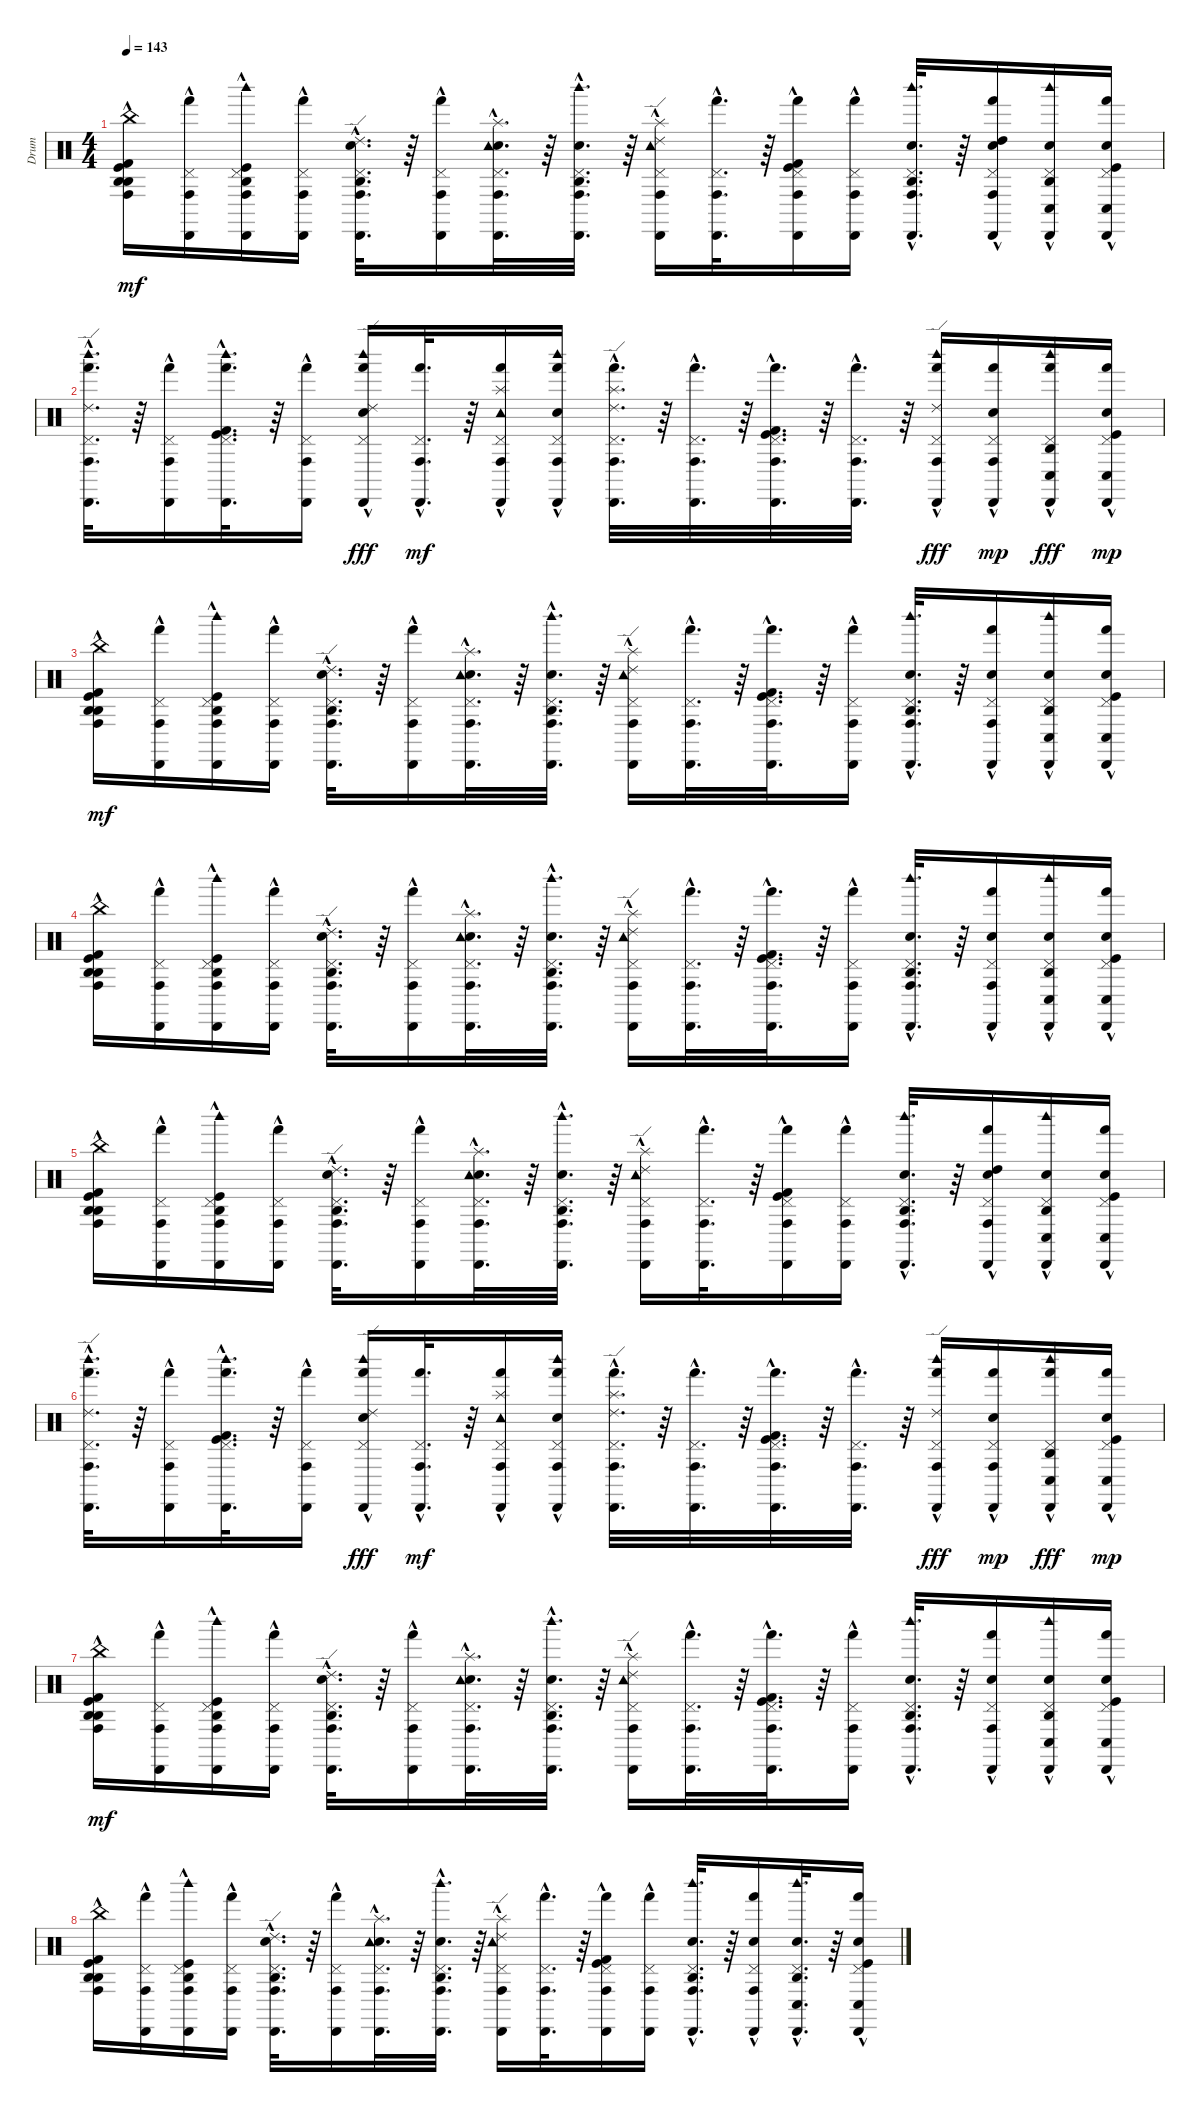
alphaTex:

\track ("Drum" "Drum") {instrument percussion}
\staff {score}
\articulation defaults
\ts (4 4)
\tempo 143
\clef neutral
\ks c
("China (hit)" "Kick (hit)"{hac} "Kick (hit) 2" "Agogo high (hit)"{hac} "Agogo high (hit)"{hac} "Conga high (hit)"{hac}).16{dy mf} ("Conga high (hit)"{hac} "Cabasa (hit)"{hac} "Pedal Hi-Hat (hit)"{hac} "Hand (hit)"{hac}).16 ("Agogo high (hit)"{hac} "Conga high (hit)"{hac} "Cabasa (hit)"{hac} "Kick (hit)"{hac} "Pedal Hi-Hat (hit)"{hac} "Woodblock high (hit)").16 ("Conga high (hit)"{hac} "Cabasa (hit)"{hac} "Pedal Hi-Hat (hit)"{hac} "Hand (hit)"{hac}).16 ("Agogo high (hit)"{hac} "Conga high (hit)"{hac} "Cabasa (hit)"{hac} "Snare (hit) 2"{hac} "Pedal Hi-Hat (hit)"{hac} "Ride (edge) 2"{hac}).32{d} r.64 ("Conga high (hit)"{hac} "Cabasa (hit)"{hac} "Pedal Hi-Hat (hit)"{hac} "Hand (hit)"{hac}).16 ("Snare (hit) 2"{hac} "Tambourine (hit)"{hac} "Splash (hit)"{hac} "Conga high (hit)"{hac} "Cabasa (hit)"{hac} "Pedal Hi-Hat (hit)"{hac}).32{d} r.64 ("Agogo high (hit)"{hac} "Conga high (hit)"{hac} "Cabasa (hit)"{hac} "Snare (hit) 2"{hac} "Pedal Hi-Hat (hit)"{hac} "Woodblock high (hit)"{hac}).32{d} r.64 ("Tambourine (hit)"{hac} "Splash (hit)"{hac} "Conga high (hit)"{hac} "Cabasa (hit)"{hac} "Pedal Hi-Hat (hit)"{hac} "Ride (edge) 2").16 ("Conga high (hit)"{hac} "Cabasa (hit)"{hac} "Pedal Hi-Hat (hit)"{hac} "Hand (hit)"{hac}).32{d} r.64 ("Conga high (hit)"{hac} "Cabasa (hit)"{hac} "Kick (hit)"{hac} "Pedal Hi-Hat (hit)"{hac} "Kick (hit) 2"{hac} "Hand (hit)"{hac}).16 ("Conga high (hit)"{hac} "Cabasa (hit)"{hac} "Pedal Hi-Hat (hit)"{hac} "Hand (hit)"{hac}).16 ("Snare (hit) 2"{hac} "Agogo high (hit)"{hac} "Woodblock high (hit)"{hac} "Conga high (hit)"{hac} "Cabasa (hit)"{hac} "Pedal Hi-Hat (hit)"{hac}).32{d} r.64 ("Snare (hit) 2"{hac} "Conga high (hit)"{hac} "Cabasa (hit)"{hac} "Pedal Hi-Hat (hit)"{hac} "Hand (hit)"{hac} "High Tom (hit)"{hac}).16 ("Snare (hit) 2"{hac} "Agogo high (hit)"{hac} "Woodblock high (hit)"{hac} "Conga low (hit)"{hac} "Cabasa (hit)"{hac} "Pedal Hi-Hat (hit)"{hac}).16 ("Kick (hit)"{hac} "Conga low (hit)"{hac} "Cabasa (hit)"{hac} "Snare (hit) 2"{hac} "Pedal Hi-Hat (hit)"{hac} "Hand (hit)"{hac}).16 |
("Hand (hit)"{hac} "Woodblock high (hit)"{hac} "Ride (edge) 2"{hac} "Pedal Hi-Hat (hit)"{hac} "Cabasa (hit)"{hac} "Conga high (hit)"{hac}).32{d} r.64 ("Hand (hit)"{hac} "Pedal Hi-Hat (hit)"{hac} "Cabasa (hit)"{hac} "Conga high (hit)"{hac}).16 ("Hand (hit)"{hac} "Kick (hit) 2"{hac} "Woodblock high (hit)"{hac} "Pedal Hi-Hat (hit)"{hac} "Kick (hit)"{hac} "Cabasa (hit)"{hac}).32{d} r.64 ("Hand (hit)"{hac} "Pedal Hi-Hat (hit)"{hac} "Cabasa (hit)"{hac} "Conga high (hit)"{hac}).16 ("Hand (hit)"{hac} "Woodblock high (hit)"{hac} "Ride (edge) 2"{hac} "Pedal Hi-Hat (hit)"{hac} "Snare (hit) 2" "Cabasa (hit)"{hac}).16{dy fff} ("Hand (hit)"{hac} "Pedal Hi-Hat (hit)"{hac} "Cabasa (hit)"{hac} "Conga high (hit)"{hac}).32{d dy mf} r.64 ("Hand (hit)"{hac} "Pedal Hi-Hat (hit)"{hac} "Cabasa (hit)"{hac} "Conga high (hit)"{hac} "Splash (hit)"{hac} "Tambourine (hit)").16 ("Hand (hit)"{hac} "Woodblock high (hit)"{hac} "Pedal Hi-Hat (hit)"{hac} "Snare (hit) 2" "Cabasa (hit)"{hac} "Conga high (hit)"{hac}).16 ("Hand (hit)"{hac} "Ride (edge) 2"{hac} "Pedal Hi-Hat (hit)"{hac} "Cabasa (hit)"{hac} "Conga high (hit)"{hac} "Splash (hit)"{hac}).32{d} r.64 ("Hand (hit)"{hac} "Pedal Hi-Hat (hit)"{hac} "Cabasa (hit)"{hac} "Conga high (hit)"{hac}).32{d} r.64 ("Hand (hit)"{hac} "Kick (hit) 2"{hac} "Pedal Hi-Hat (hit)"{hac} "Kick (hit)"{hac} "Cabasa (hit)"{hac} "Conga high (hit)"{hac}).32{d} r.64 ("Hand (hit)"{hac} "Pedal Hi-Hat (hit)"{hac} "Cabasa (hit)"{hac} "Conga high (hit)"{hac}).32{d} r.64 ("Hand (hit)"{hac} "Ride (edge) 2" "Pedal Hi-Hat (hit)"{hac} "Cabasa (hit)"{hac} "Conga high (hit)"{hac} "Woodblock high (hit)"{hac}).16{dy fff} ("Hand (hit)"{hac} "Pedal Hi-Hat (hit)"{hac} "Cabasa (hit)"{hac} "Conga high (hit)"{hac} "Snare (hit) 2"{hac}).16{dy mp} ("Hand (hit)"{hac} "Pedal Hi-Hat (hit)"{hac} "Cabasa (hit)"{hac} "Conga low (hit)"{hac} "Woodblock high (hit)" "Agogo high (hit)"{hac}).16{dy fff} ("Hand (hit)"{hac} "Pedal Hi-Hat (hit)"{hac} "Snare (hit) 2"{hac} "Cabasa (hit)"{hac} "Conga low (hit)"{hac} "Kick (hit)"{hac}).16{dy mp} |
("China (hit)"{hac} "Kick (hit)"{hac} "Kick (hit) 2" "Agogo high (hit)"{hac} "Agogo high (hit)"{hac} "Conga high (hit)"{hac}).16{dy mf} ("Conga high (hit)"{hac} "Cabasa (hit)"{hac} "Pedal Hi-Hat (hit)"{hac} "Hand (hit)"{hac}).16 ("Agogo high (hit)"{hac} "Conga high (hit)"{hac} "Cabasa (hit)"{hac} "Kick (hit)"{hac} "Pedal Hi-Hat (hit)"{hac} "Woodblock high (hit)").16 ("Conga high (hit)"{hac} "Cabasa (hit)"{hac} "Pedal Hi-Hat (hit)"{hac} "Hand (hit)"{hac}).16 ("Agogo high (hit)"{hac} "Conga high (hit)"{hac} "Cabasa (hit)"{hac} "Snare (hit) 2"{hac} "Pedal Hi-Hat (hit)"{hac} "Ride (edge) 2"{hac}).32{d} r.64 ("Conga high (hit)"{hac} "Cabasa (hit)"{hac} "Pedal Hi-Hat (hit)"{hac} "Hand (hit)"{hac}).16 ("Snare (hit) 2"{hac} "Tambourine (hit)"{hac} "Splash (hit)"{hac} "Conga high (hit)"{hac} "Cabasa (hit)"{hac} "Pedal Hi-Hat (hit)"{hac}).32{d} r.64 ("Agogo high (hit)"{hac} "Conga high (hit)"{hac} "Cabasa (hit)"{hac} "Snare (hit) 2"{hac} "Pedal Hi-Hat (hit)"{hac} "Woodblock high (hit)"{hac}).32{d} r.64 ("Tambourine (hit)"{hac} "Splash (hit)"{hac} "Conga high (hit)"{hac} "Cabasa (hit)"{hac} "Pedal Hi-Hat (hit)"{hac} "Ride (edge) 2").16 ("Conga high (hit)"{hac} "Cabasa (hit)"{hac} "Pedal Hi-Hat (hit)"{hac} "Hand (hit)"{hac}).32{d} r.64 ("Conga high (hit)"{hac} "Cabasa (hit)"{hac} "Kick (hit)"{hac} "Pedal Hi-Hat (hit)"{hac} "Kick (hit) 2"{hac} "Hand (hit)"{hac}).32{d} r.64 ("Conga high (hit)"{hac} "Cabasa (hit)"{hac} "Pedal Hi-Hat (hit)"{hac} "Hand (hit)"{hac}).16 ("Snare (hit) 2"{hac} "Agogo high (hit)"{hac} "Woodblock high (hit)"{hac} "Conga high (hit)"{hac} "Cabasa (hit)"{hac} "Pedal Hi-Hat (hit)"{hac}).32{d} r.64 ("Snare (hit) 2"{hac} "Conga high (hit)"{hac} "Cabasa (hit)"{hac} "Pedal Hi-Hat (hit)"{hac} "Hand (hit)"{hac}).16 ("Snare (hit) 2"{hac} "Agogo high (hit)"{hac} "Woodblock high (hit)" "Conga low (hit)"{hac} "Cabasa (hit)"{hac} "Pedal Hi-Hat (hit)"{hac}).16 ("Kick (hit)"{hac} "Conga low (hit)"{hac} "Cabasa (hit)"{hac} "Snare (hit) 2"{hac} "Pedal Hi-Hat (hit)"{hac} "Hand (hit)"{hac}).16 |
("China (hit)"{hac} "Kick (hit)"{hac} "Kick (hit) 2" "Agogo high (hit)"{hac} "Agogo high (hit)"{hac} "Conga high (hit)"{hac}).16 ("Conga high (hit)"{hac} "Cabasa (hit)"{hac} "Pedal Hi-Hat (hit)"{hac} "Hand (hit)"{hac}).16 ("Agogo high (hit)"{hac} "Conga high (hit)"{hac} "Cabasa (hit)"{hac} "Kick (hit)"{hac} "Pedal Hi-Hat (hit)"{hac} "Woodblock high (hit)").16 ("Conga high (hit)"{hac} "Cabasa (hit)"{hac} "Pedal Hi-Hat (hit)"{hac} "Hand (hit)"{hac}).16 ("Agogo high (hit)"{hac} "Conga high (hit)"{hac} "Cabasa (hit)"{hac} "Snare (hit) 2"{hac} "Pedal Hi-Hat (hit)"{hac} "Ride (edge) 2"{hac}).32{d} r.64 ("Conga high (hit)"{hac} "Cabasa (hit)"{hac} "Pedal Hi-Hat (hit)"{hac} "Hand (hit)"{hac}).16 ("Snare (hit) 2"{hac} "Tambourine (hit)"{hac} "Splash (hit)"{hac} "Conga high (hit)"{hac} "Cabasa (hit)"{hac} "Pedal Hi-Hat (hit)"{hac}).32{d} r.64 ("Agogo high (hit)"{hac} "Conga high (hit)"{hac} "Cabasa (hit)"{hac} "Snare (hit) 2"{hac} "Pedal Hi-Hat (hit)"{hac} "Woodblock high (hit)"{hac}).32{d} r.64 ("Tambourine (hit)"{hac} "Splash (hit)"{hac} "Conga high (hit)"{hac} "Cabasa (hit)"{hac} "Pedal Hi-Hat (hit)"{hac} "Ride (edge) 2").16 ("Conga high (hit)"{hac} "Cabasa (hit)"{hac} "Pedal Hi-Hat (hit)"{hac} "Hand (hit)"{hac}).32{d} r.64 ("Conga high (hit)"{hac} "Cabasa (hit)"{hac} "Kick (hit)"{hac} "Pedal Hi-Hat (hit)"{hac} "Kick (hit) 2"{hac} "Hand (hit)"{hac}).32{d} r.64 ("Conga high (hit)"{hac} "Cabasa (hit)"{hac} "Pedal Hi-Hat (hit)"{hac} "Hand (hit)"{hac}).16 ("Snare (hit) 2"{hac} "Agogo high (hit)"{hac} "Woodblock high (hit)"{hac} "Conga high (hit)"{hac} "Cabasa (hit)"{hac} "Pedal Hi-Hat (hit)"{hac}).32{d} r.64 ("Snare (hit) 2"{hac} "Conga high (hit)"{hac} "Cabasa (hit)"{hac} "Pedal Hi-Hat (hit)"{hac} "Hand (hit)"{hac}).16 ("Snare (hit) 2"{hac} "Agogo high (hit)"{hac} "Woodblock high (hit)" "Conga low (hit)"{hac} "Cabasa (hit)"{hac} "Pedal Hi-Hat (hit)"{hac}).16 ("Kick (hit)"{hac} "Conga low (hit)"{hac} "Cabasa (hit)"{hac} "Snare (hit) 2"{hac} "Pedal Hi-Hat (hit)"{hac} "Hand (hit)"{hac}).16 |
("China (hit)" "Kick (hit)"{hac} "Kick (hit) 2" "Agogo high (hit)"{hac} "Agogo high (hit)"{hac} "Conga high (hit)"{hac}).16 ("Conga high (hit)"{hac} "Cabasa (hit)"{hac} "Pedal Hi-Hat (hit)"{hac} "Hand (hit)"{hac}).16 ("Agogo high (hit)"{hac} "Conga high (hit)"{hac} "Cabasa (hit)"{hac} "Kick (hit)"{hac} "Pedal Hi-Hat (hit)"{hac} "Woodblock high (hit)").16 ("Conga high (hit)"{hac} "Cabasa (hit)"{hac} "Pedal Hi-Hat (hit)"{hac} "Hand (hit)"{hac}).16 ("Agogo high (hit)"{hac} "Conga high (hit)"{hac} "Cabasa (hit)"{hac} "Snare (hit) 2"{hac} "Pedal Hi-Hat (hit)"{hac} "Ride (edge) 2"{hac}).32{d} r.64 ("Conga high (hit)"{hac} "Cabasa (hit)"{hac} "Pedal Hi-Hat (hit)"{hac} "Hand (hit)"{hac}).16 ("Snare (hit) 2"{hac} "Tambourine (hit)"{hac} "Splash (hit)"{hac} "Conga high (hit)"{hac} "Cabasa (hit)"{hac} "Pedal Hi-Hat (hit)"{hac}).32{d} r.64 ("Agogo high (hit)"{hac} "Conga high (hit)"{hac} "Cabasa (hit)"{hac} "Snare (hit) 2"{hac} "Pedal Hi-Hat (hit)"{hac} "Woodblock high (hit)"{hac}).32{d} r.64 ("Tambourine (hit)"{hac} "Splash (hit)"{hac} "Conga high (hit)"{hac} "Cabasa (hit)"{hac} "Pedal Hi-Hat (hit)"{hac} "Ride (edge) 2").16 ("Conga high (hit)"{hac} "Cabasa (hit)"{hac} "Pedal Hi-Hat (hit)"{hac} "Hand (hit)"{hac}).32{d} r.64 ("Conga high (hit)"{hac} "Cabasa (hit)"{hac} "Kick (hit)"{hac} "Pedal Hi-Hat (hit)"{hac} "Kick (hit) 2"{hac} "Hand (hit)"{hac}).16 ("Conga high (hit)"{hac} "Cabasa (hit)"{hac} "Pedal Hi-Hat (hit)"{hac} "Hand (hit)"{hac}).16 ("Snare (hit) 2"{hac} "Agogo high (hit)"{hac} "Woodblock high (hit)"{hac} "Conga high (hit)"{hac} "Cabasa (hit)"{hac} "Pedal Hi-Hat (hit)"{hac}).32{d} r.64 ("Snare (hit) 2"{hac} "Conga high (hit)"{hac} "Cabasa (hit)"{hac} "Pedal Hi-Hat (hit)"{hac} "Hand (hit)"{hac} "High Tom (hit)"{hac}).16 ("Snare (hit) 2"{hac} "Agogo high (hit)"{hac} "Woodblock high (hit)"{hac} "Conga low (hit)"{hac} "Cabasa (hit)"{hac} "Pedal Hi-Hat (hit)"{hac}).16 ("Kick (hit)"{hac} "Conga low (hit)"{hac} "Cabasa (hit)"{hac} "Snare (hit) 2"{hac} "Pedal Hi-Hat (hit)"{hac} "Hand (hit)"{hac}).16 |
("Hand (hit)"{hac} "Woodblock high (hit)"{hac} "Ride (edge) 2"{hac} "Pedal Hi-Hat (hit)"{hac} "Cabasa (hit)"{hac} "Conga high (hit)"{hac}).32{d} r.64 ("Hand (hit)"{hac} "Pedal Hi-Hat (hit)"{hac} "Cabasa (hit)"{hac} "Conga high (hit)"{hac}).16 ("Hand (hit)"{hac} "Kick (hit) 2"{hac} "Woodblock high (hit)"{hac} "Pedal Hi-Hat (hit)"{hac} "Kick (hit)"{hac} "Cabasa (hit)"{hac}).32{d} r.64 ("Hand (hit)"{hac} "Pedal Hi-Hat (hit)"{hac} "Cabasa (hit)"{hac} "Conga high (hit)"{hac}).16 ("Hand (hit)"{hac} "Woodblock high (hit)"{hac} "Ride (edge) 2"{hac} "Pedal Hi-Hat (hit)"{hac} "Snare (hit) 2" "Cabasa (hit)"{hac}).16{dy fff} ("Hand (hit)"{hac} "Pedal Hi-Hat (hit)"{hac} "Cabasa (hit)"{hac} "Conga high (hit)"{hac}).32{d dy mf} r.64 ("Hand (hit)"{hac} "Pedal Hi-Hat (hit)"{hac} "Cabasa (hit)"{hac} "Conga high (hit)"{hac} "Splash (hit)"{hac} "Tambourine (hit)").16 ("Hand (hit)"{hac} "Woodblock high (hit)"{hac} "Pedal Hi-Hat (hit)"{hac} "Snare (hit) 2" "Cabasa (hit)"{hac} "Conga high (hit)"{hac}).16 ("Hand (hit)"{hac} "Ride (edge) 2"{hac} "Pedal Hi-Hat (hit)"{hac} "Cabasa (hit)"{hac} "Conga high (hit)"{hac} "Splash (hit)"{hac}).32{d} r.64 ("Hand (hit)"{hac} "Pedal Hi-Hat (hit)"{hac} "Cabasa (hit)"{hac} "Conga high (hit)"{hac}).32{d} r.64 ("Hand (hit)"{hac} "Kick (hit) 2"{hac} "Pedal Hi-Hat (hit)"{hac} "Kick (hit)"{hac} "Cabasa (hit)"{hac} "Conga high (hit)"{hac}).32{d} r.64 ("Hand (hit)"{hac} "Pedal Hi-Hat (hit)"{hac} "Cabasa (hit)"{hac} "Conga high (hit)"{hac}).32{d} r.64 ("Hand (hit)"{hac} "Ride (edge) 2" "Pedal Hi-Hat (hit)"{hac} "Cabasa (hit)"{hac} "Conga high (hit)"{hac} "Woodblock high (hit)"{hac}).16{dy fff} ("Hand (hit)"{hac} "Pedal Hi-Hat (hit)"{hac} "Cabasa (hit)"{hac} "Conga high (hit)"{hac} "Snare (hit) 2"{hac}).16{dy mp} ("Hand (hit)"{hac} "Pedal Hi-Hat (hit)"{hac} "Cabasa (hit)"{hac} "Conga low (hit)"{hac} "Woodblock high (hit)" "Agogo high (hit)"{hac}).16{dy fff} ("Hand (hit)"{hac} "Pedal Hi-Hat (hit)"{hac} "Snare (hit) 2"{hac} "Cabasa (hit)"{hac} "Conga low (hit)"{hac} "Kick (hit)"{hac}).16{dy mp} |
("China (hit)"{hac} "Kick (hit)"{hac} "Kick (hit) 2" "Agogo high (hit)"{hac} "Agogo high (hit)"{hac} "Conga high (hit)"{hac}).16{dy mf} ("Conga high (hit)"{hac} "Cabasa (hit)"{hac} "Pedal Hi-Hat (hit)"{hac} "Hand (hit)"{hac}).16 ("Agogo high (hit)"{hac} "Conga high (hit)"{hac} "Cabasa (hit)"{hac} "Kick (hit)"{hac} "Pedal Hi-Hat (hit)"{hac} "Woodblock high (hit)").16 ("Conga high (hit)"{hac} "Cabasa (hit)"{hac} "Pedal Hi-Hat (hit)"{hac} "Hand (hit)"{hac}).16 ("Agogo high (hit)"{hac} "Conga high (hit)"{hac} "Cabasa (hit)"{hac} "Snare (hit) 2"{hac} "Pedal Hi-Hat (hit)"{hac} "Ride (edge) 2"{hac}).32{d} r.64 ("Conga high (hit)"{hac} "Cabasa (hit)"{hac} "Pedal Hi-Hat (hit)"{hac} "Hand (hit)"{hac}).16 ("Snare (hit) 2"{hac} "Tambourine (hit)"{hac} "Splash (hit)"{hac} "Conga high (hit)"{hac} "Cabasa (hit)"{hac} "Pedal Hi-Hat (hit)"{hac}).32{d} r.64 ("Agogo high (hit)"{hac} "Conga high (hit)"{hac} "Cabasa (hit)"{hac} "Snare (hit) 2"{hac} "Pedal Hi-Hat (hit)"{hac} "Woodblock high (hit)"{hac}).32{d} r.64 ("Tambourine (hit)"{hac} "Splash (hit)"{hac} "Conga high (hit)"{hac} "Cabasa (hit)"{hac} "Pedal Hi-Hat (hit)"{hac} "Ride (edge) 2").16 ("Conga high (hit)"{hac} "Cabasa (hit)"{hac} "Pedal Hi-Hat (hit)"{hac} "Hand (hit)"{hac}).32{d} r.64 ("Conga high (hit)"{hac} "Cabasa (hit)"{hac} "Kick (hit)"{hac} "Pedal Hi-Hat (hit)"{hac} "Kick (hit) 2"{hac} "Hand (hit)"{hac}).32{d} r.64 ("Conga high (hit)"{hac} "Cabasa (hit)"{hac} "Pedal Hi-Hat (hit)"{hac} "Hand (hit)"{hac}).16 ("Snare (hit) 2"{hac} "Agogo high (hit)"{hac} "Woodblock high (hit)"{hac} "Conga high (hit)"{hac} "Cabasa (hit)"{hac} "Pedal Hi-Hat (hit)"{hac}).32{d} r.64 ("Snare (hit) 2"{hac} "Conga high (hit)"{hac} "Cabasa (hit)"{hac} "Pedal Hi-Hat (hit)"{hac} "Hand (hit)"{hac}).16 ("Snare (hit) 2"{hac} "Agogo high (hit)"{hac} "Woodblock high (hit)" "Conga low (hit)"{hac} "Cabasa (hit)"{hac} "Pedal Hi-Hat (hit)"{hac}).16 ("Kick (hit)"{hac} "Conga low (hit)"{hac} "Cabasa (hit)"{hac} "Snare (hit) 2"{hac} "Pedal Hi-Hat (hit)"{hac} "Hand (hit)"{hac}).16 |
("China (hit)" "Kick (hit)"{hac} "Kick (hit) 2" "Agogo high (hit)"{hac} "Agogo high (hit)"{hac} "Conga high (hit)"{hac}).16 ("Conga high (hit)"{hac} "Cabasa (hit)"{hac} "Pedal Hi-Hat (hit)"{hac} "Hand (hit)"{hac}).16 ("Agogo high (hit)"{hac} "Conga high (hit)"{hac} "Cabasa (hit)"{hac} "Kick (hit)"{hac} "Pedal Hi-Hat (hit)"{hac} "Woodblock high (hit)").16 ("Conga high (hit)"{hac} "Cabasa (hit)"{hac} "Pedal Hi-Hat (hit)"{hac} "Hand (hit)"{hac}).16 ("Agogo high (hit)"{hac} "Conga high (hit)"{hac} "Cabasa (hit)"{hac} "Snare (hit) 2"{hac} "Pedal Hi-Hat (hit)"{hac} "Ride (edge) 2"{hac}).32{d} r.64 ("Conga high (hit)"{hac} "Cabasa (hit)"{hac} "Pedal Hi-Hat (hit)"{hac} "Hand (hit)"{hac}).16 ("Snare (hit) 2"{hac} "Tambourine (hit)"{hac} "Splash (hit)"{hac} "Conga high (hit)"{hac} "Cabasa (hit)"{hac} "Pedal Hi-Hat (hit)"{hac}).32{d} r.64 ("Agogo high (hit)"{hac} "Conga high (hit)"{hac} "Cabasa (hit)"{hac} "Snare (hit) 2"{hac} "Pedal Hi-Hat (hit)"{hac} "Woodblock high (hit)"{hac}).32{d} r.64 ("Tambourine (hit)" "Splash (hit)" "Conga high (hit)"{hac} "Cabasa (hit)"{hac} "Pedal Hi-Hat (hit)"{hac} "Ride (edge) 2").16 ("Conga high (hit)"{hac} "Cabasa (hit)"{hac} "Pedal Hi-Hat (hit)"{hac} "Hand (hit)"{hac}).32{d} r.64 ("Conga high (hit)"{hac} "Cabasa (hit)"{hac} "Kick (hit)"{hac} "Pedal Hi-Hat (hit)"{hac} "Kick (hit) 2"{hac} "Hand (hit)"{hac}).16 ("Conga high (hit)"{hac} "Cabasa (hit)"{hac} "Pedal Hi-Hat (hit)"{hac} "Hand (hit)"{hac}).16 ("Snare (hit) 2"{hac} "Agogo high (hit)"{hac} "Woodblock high (hit)"{hac} "Conga high (hit)"{hac} "Cabasa (hit)"{hac} "Pedal Hi-Hat (hit)"{hac}).32{d} r.64 ("Snare (hit) 2"{hac} "Conga high (hit)"{hac} "Cabasa (hit)"{hac} "Pedal Hi-Hat (hit)"{hac} "Hand (hit)"{hac}).16 ("Snare (hit) 2"{hac} "Agogo high (hit)"{hac} "Woodblock high (hit)"{hac} "Conga low (hit)"{hac} "Cabasa (hit)"{hac} "Pedal Hi-Hat (hit)"{hac}).32{d} r.64 ("Kick (hit)"{hac} "Conga low (hit)"{hac} "Cabasa (hit)"{hac} "Snare (hit) 2"{hac} "Pedal Hi-Hat (hit)"{hac} "Hand (hit)"{hac}).16
